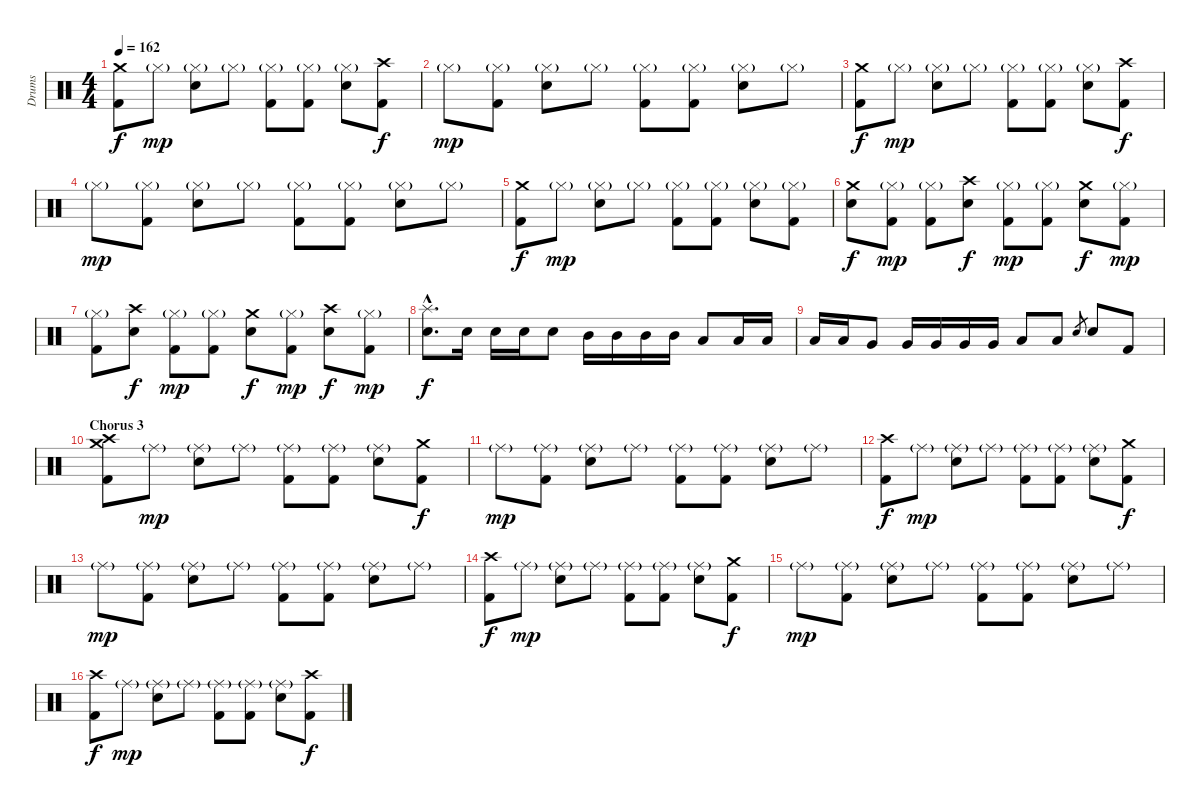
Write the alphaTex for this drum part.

\track ("Drums" "Drums") {instrument percussion}
\staff {score}
\articulation defaults
\ts (4 4)
\tempo 162
\clef neutral
\ks c
("Crash medium (hit)" "Kick (hit) 2").8{dy f} "Hi-Hat (closed)"{g}.8{dy mp} ("Hi-Hat (closed)"{g} "Snare (hit) 2").8 "Hi-Hat (closed)"{g}.8 ("Hi-Hat (closed)"{g} "Kick (hit) 2").8 ("Hi-Hat (closed)"{g} "Kick (hit) 2").8 ("Hi-Hat (closed)"{g} "Snare (hit) 2").8 ("Crash high (hit)" "Kick (hit) 2").8{dy f} |
"Hi-Hat (closed)"{g}.8{dy mp} ("Hi-Hat (closed)"{g} "Kick (hit) 2").8 ("Hi-Hat (closed)"{g} "Snare (hit) 2").8 "Hi-Hat (closed)"{g}.8 ("Hi-Hat (closed)"{g} "Kick (hit) 2").8 ("Hi-Hat (closed)"{g} "Kick (hit) 2").8 ("Hi-Hat (closed)"{g} "Snare (hit) 2").8 "Hi-Hat (closed)"{g}.8 |
("Crash medium (hit)" "Kick (hit) 2").8{dy f} "Hi-Hat (closed)"{g}.8{dy mp} ("Hi-Hat (closed)"{g} "Snare (hit) 2").8 "Hi-Hat (closed)"{g}.8 ("Hi-Hat (closed)"{g} "Kick (hit) 2").8 ("Hi-Hat (closed)"{g} "Kick (hit) 2").8 ("Hi-Hat (closed)"{g} "Snare (hit) 2").8 ("Crash high (hit)" "Kick (hit) 2").8{dy f} |
"Hi-Hat (closed)"{g}.8{dy mp} ("Hi-Hat (closed)"{g} "Kick (hit) 2").8 ("Hi-Hat (closed)"{g} "Snare (hit) 2").8 "Hi-Hat (closed)"{g}.8 ("Hi-Hat (closed)"{g} "Kick (hit) 2").8 ("Hi-Hat (closed)"{g} "Kick (hit) 2").8 ("Hi-Hat (closed)"{g} "Snare (hit) 2").8 "Hi-Hat (closed)"{g}.8 |
("Crash medium (hit)" "Kick (hit) 2").8{dy f} "Hi-Hat (closed)"{g}.8{dy mp} ("Hi-Hat (closed)"{g} "Snare (hit) 2").8 "Hi-Hat (closed)"{g}.8 ("Hi-Hat (closed)"{g} "Kick (hit) 2").8 ("Hi-Hat (closed)"{g} "Kick (hit) 2").8 ("Hi-Hat (closed)"{g} "Snare (hit) 2").8 ("Hi-Hat (closed)"{g} "Kick (hit) 2").8 |
("Crash medium (hit)" "Snare (hit) 2").8{dy f} ("Hi-Hat (closed)"{g} "Kick (hit) 2").8{dy mp} ("Hi-Hat (closed)"{g} "Kick (hit) 2").8 ("Crash high (hit)" "Snare (hit) 2").8{dy f} ("Hi-Hat (closed)"{g} "Kick (hit) 2").8{dy mp} ("Hi-Hat (closed)"{g} "Kick (hit) 2").8 ("Crash medium (hit)" "Snare (hit) 2").8{dy f} ("Hi-Hat (closed)"{g} "Kick (hit) 2").8{dy mp} |
("Hi-Hat (closed)"{g} "Kick (hit) 2").8 ("Crash high (hit)" "Snare (hit) 2").8{dy f} ("Hi-Hat (closed)"{g} "Kick (hit) 2").8{dy mp} ("Hi-Hat (closed)"{g} "Kick (hit) 2").8 ("Crash medium (hit)" "Snare (hit) 2").8{dy f} ("Hi-Hat (closed)"{g} "Kick (hit) 2").8{dy mp} ("Crash high (hit)" "Snare (hit) 2").8{dy f} ("Hi-Hat (closed)"{g} "Kick (hit) 2").8{dy mp} |
("Splash (hit)"{hac} "Snare (hit) 2"{hac}).8{d dy f} "Snare (hit) 2".16 "Snare (hit) 2".16 "Snare (hit) 2".16 "Snare (hit) 2".8 "Mid Tom (hit)".16 "Mid Tom (hit)".16 "Mid Tom (hit)".16 "Mid Tom (hit)".16 "Low Tom (hit)".8 "Low Tom (hit)".16 "Low Tom (hit)".16 |
"Low Tom (hit)".16 "Low Tom (hit)".16 "Very Low Tom (hit)".8 "Very Low Tom (hit)".16 "Very Low Tom (hit)".16 "Very Low Tom (hit)".16 "Very Low Tom (hit)".16 "Low Floor Tom (hit)".8 "Low Floor Tom (hit)".8 "Snare (hit) 2".8{gr} "Snare (hit) 2".8 "Kick (hit) 2".8 |
\section ("" "Chorus 3")
("Crash medium (hit)" "Crash high (hit)" "Kick (hit) 2").8 "Ride (middle)"{g}.8{dy mp} ("Ride (middle)"{g} "Snare (hit) 2").8 "Ride (middle)"{g}.8 ("Ride (middle)"{g} "Kick (hit) 2").8 ("Ride (middle)"{g} "Kick (hit) 2").8 ("Ride (middle)"{g} "Snare (hit) 2").8 ("Crash medium (hit)" "Kick (hit) 2").8{dy f} |
"Ride (middle)"{g}.8{dy mp} ("Ride (middle)"{g} "Kick (hit) 2").8 ("Ride (middle)"{g} "Snare (hit) 2").8 "Ride (middle)"{g}.8 ("Ride (middle)"{g} "Kick (hit) 2").8 ("Ride (middle)"{g} "Kick (hit) 2").8 ("Ride (middle)"{g} "Snare (hit) 2").8 "Ride (middle)"{g}.8 |
("Crash high (hit)" "Kick (hit) 2").8{dy f} "Ride (middle)"{g}.8{dy mp} ("Ride (middle)"{g} "Snare (hit) 2").8 "Ride (middle)"{g}.8 ("Ride (middle)"{g} "Kick (hit) 2").8 ("Ride (middle)"{g} "Kick (hit) 2").8 ("Ride (middle)"{g} "Snare (hit) 2").8 ("Crash medium (hit)" "Kick (hit) 2").8{dy f} |
"Ride (middle)"{g}.8{dy mp} ("Ride (middle)"{g} "Kick (hit) 2").8 ("Ride (middle)"{g} "Snare (hit) 2").8 "Ride (middle)"{g}.8 ("Ride (middle)"{g} "Kick (hit) 2").8 ("Ride (middle)"{g} "Kick (hit) 2").8 ("Ride (middle)"{g} "Snare (hit) 2").8 "Ride (middle)"{g}.8 |
("Crash high (hit)" "Kick (hit) 2").8{dy f} "Ride (middle)"{g}.8{dy mp} ("Ride (middle)"{g} "Snare (hit) 2").8 "Ride (middle)"{g}.8 ("Ride (middle)"{g} "Kick (hit) 2").8 ("Ride (middle)"{g} "Kick (hit) 2").8 ("Ride (middle)"{g} "Snare (hit) 2").8 ("Crash medium (hit)" "Kick (hit) 2").8{dy f} |
"Ride (middle)"{g}.8{dy mp} ("Ride (middle)"{g} "Kick (hit) 2").8 ("Ride (middle)"{g} "Snare (hit) 2").8 "Ride (middle)"{g}.8 ("Ride (middle)"{g} "Kick (hit) 2").8 ("Ride (middle)"{g} "Kick (hit) 2").8 ("Ride (middle)"{g} "Snare (hit) 2").8 "Ride (middle)"{g}.8 |
("Crash high (hit)" "Kick (hit) 2").8{dy f} "Ride (middle)"{g}.8{dy mp} ("Ride (middle)"{g} "Snare (hit) 2").8 "Ride (middle)"{g}.8 ("Ride (middle)"{g} "Kick (hit) 2").8 ("Ride (middle)"{g} "Kick (hit) 2").8 ("Ride (middle)"{g} "Snare (hit) 2").8 ("Crash high (hit)" "Kick (hit) 2").8{dy f}
